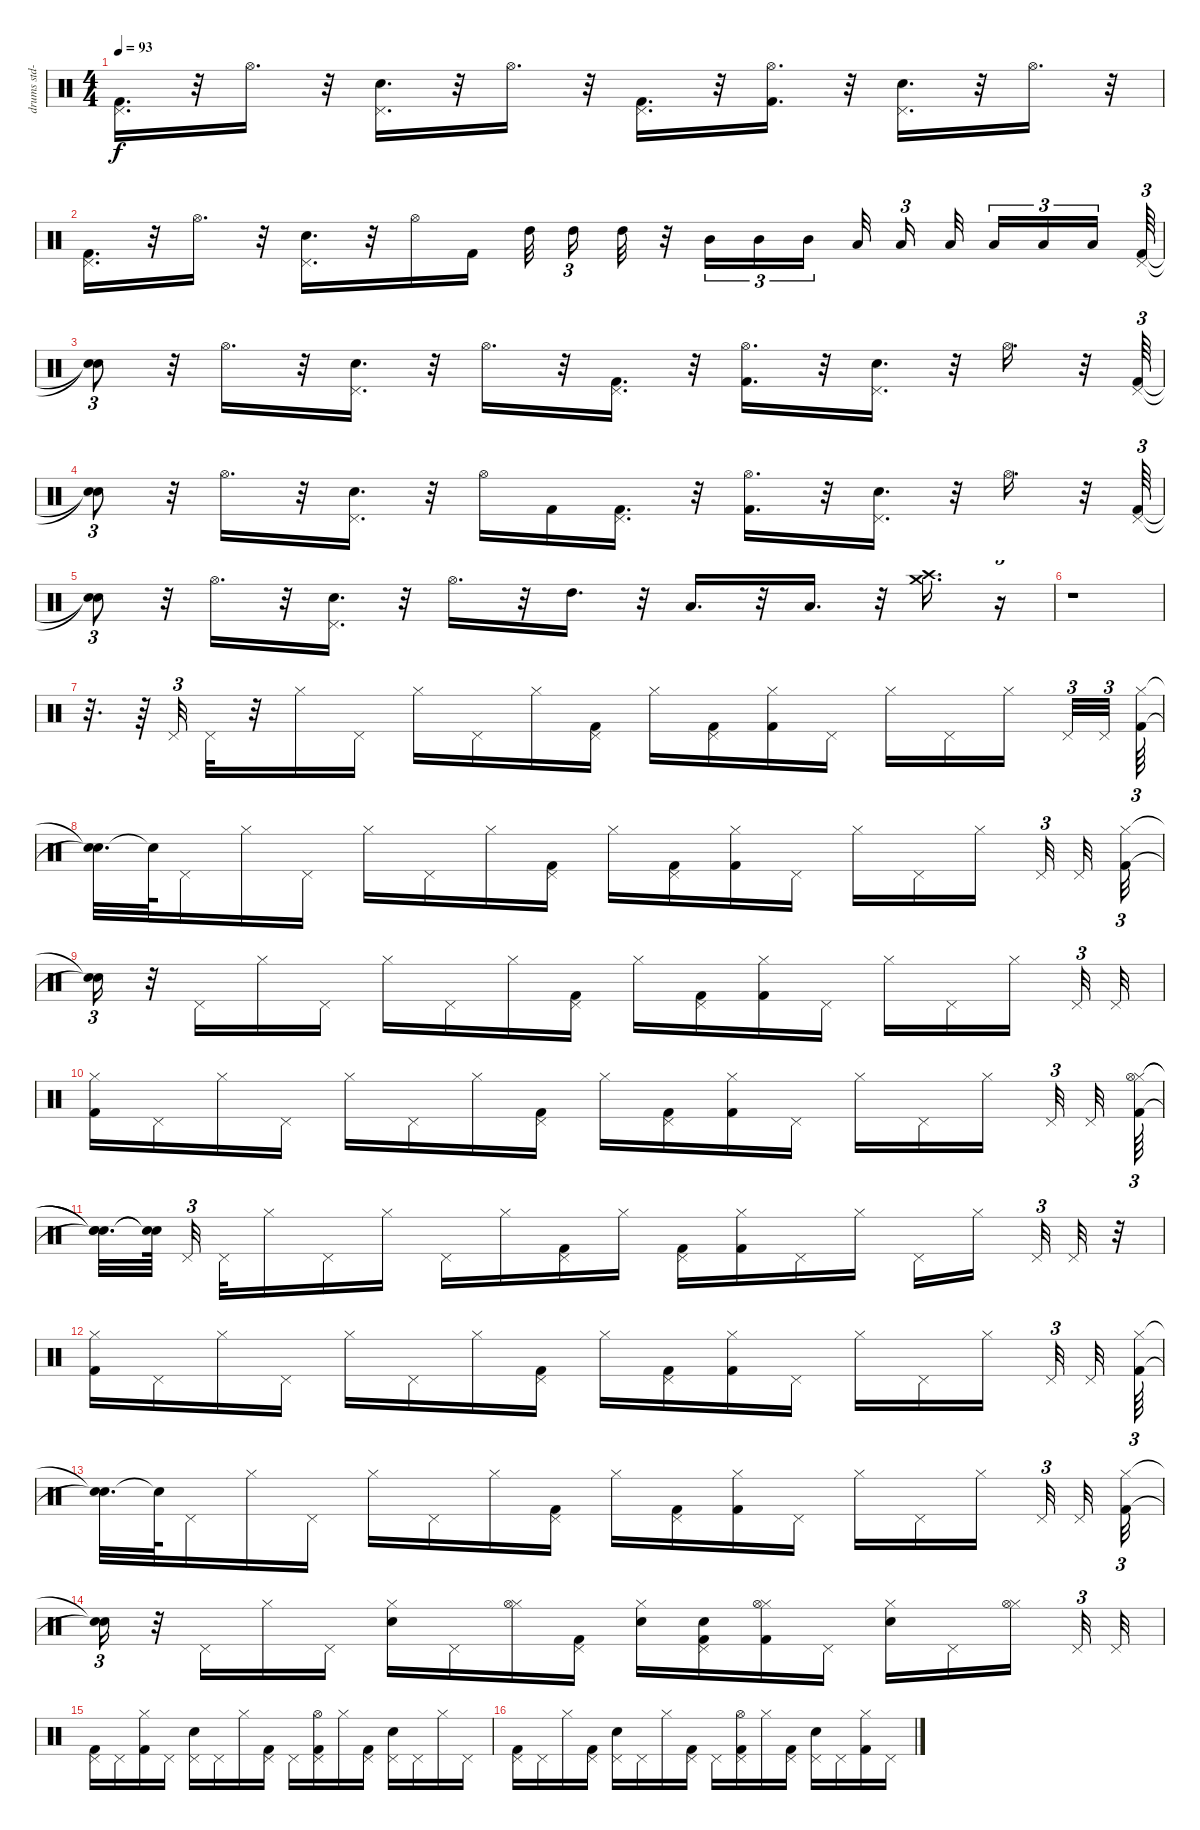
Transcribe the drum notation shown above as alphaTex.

\track ("drums std-0" "drums std-") {instrument percussion}
\staff {score}
\articulation defaults
\ts (4 4)
\tempo 93
\clef neutral
\ks c
("Pedal Hi-Hat (hit)" "Kick (hit) 2").16{d dy f} r.32 "Hi-Hat (open)".16{d} r.32 ("Pedal Hi-Hat (hit)" "Snare (hit) 2").16{d} r.32 "Hi-Hat (open)".16{d} r.32 ("Pedal Hi-Hat (hit)" "Kick (hit) 2").16{d} r.32 ("Hi-Hat (open)" "Kick (hit) 2").16{d} r.32 ("Pedal Hi-Hat (hit)" "Snare (hit) 2").16{d} r.32 "Hi-Hat (open)".16{d} r.32 |
("Pedal Hi-Hat (hit)" "Kick (hit) 2").16{d} r.32 "Hi-Hat (open)".16{d} r.32 ("Pedal Hi-Hat (hit)" "Snare (hit) 2").16{d} r.32 "Hi-Hat (open)".16 "Kick (hit) 2".16 "High Tom (hit)".32 "High Tom (hit)".16{tu (3 2)} "High Tom (hit)".32 r.32 "Mid Tom (hit)".16{tu (3 2)} "Mid Tom (hit)".16{tu (3 2)} "Mid Tom (hit)".16{tu (3 2)} "Low Tom (hit)".32 "Low Tom (hit)".16{tu (3 2)} "Low Tom (hit)".32 "Low Floor Tom (hit)".16{tu (3 2)} "Low Floor Tom (hit)".16{tu (3 2)} "Low Floor Tom (hit)".16{tu (3 2)} ("Pedal Hi-Hat (hit)" "Kick (hit) 2").64{tu (3 2)} |
("Snare (hit)"{t} "Snare (hit)"{t}).8{tu (3 2)} r.32 "Hi-Hat (open)".16{d} r.32 ("Pedal Hi-Hat (hit)" "Snare (hit) 2").16{d} r.32 "Hi-Hat (open)".16{d} r.32 ("Pedal Hi-Hat (hit)" "Kick (hit) 2").16{d} r.32 ("Hi-Hat (open)" "Kick (hit) 2").16{d} r.32 ("Pedal Hi-Hat (hit)" "Snare (hit) 2").16{d} r.32 "Hi-Hat (open)".16{d} r.32 ("Pedal Hi-Hat (hit)" "Kick (hit) 2").64{tu (3 2)} |
("Snare (hit)"{t} "Snare (hit)"{t}).8{tu (3 2)} r.32 "Hi-Hat (open)".16{d} r.32 ("Pedal Hi-Hat (hit)" "Snare (hit) 2").16{d} r.32 "Hi-Hat (open)".16 "Kick (hit) 2".16 ("Pedal Hi-Hat (hit)" "Kick (hit) 2").16{d} r.32 ("Hi-Hat (open)" "Kick (hit) 2").16{d} r.32 ("Pedal Hi-Hat (hit)" "Snare (hit) 2").16{d} r.32 "Hi-Hat (open)".16{d} r.32 ("Pedal Hi-Hat (hit)" "Kick (hit) 2").64{tu (3 2)} |
("Snare (hit)"{t} "Snare (hit)"{t}).8{tu (3 2)} r.32 "Hi-Hat (open)".16{d} r.32 ("Pedal Hi-Hat (hit)" "Snare (hit) 2").16{d} r.32 "Hi-Hat (open)".16{d} r.32 "High Tom (hit)".16{d} r.32 "Low Tom (hit)".16{d} r.32 "Low Floor Tom (hit)".16{d} r.32 ("Crash high (hit)" "Crash medium (hit)").16{d} r.16{tu (3 2)} |
r.1 |
r.32{d} r.64 "Pedal Hi-Hat (hit)".32{tu (3 2)} "Pedal Hi-Hat (hit)".32 r.32 "Hi-Hat (closed)".16 "Pedal Hi-Hat (hit)".16 "Hi-Hat (closed)".16 "Pedal Hi-Hat (hit)".16 "Hi-Hat (closed)".16 ("Pedal Hi-Hat (hit)" "Kick (hit) 2").16 "Hi-Hat (closed)".16 ("Pedal Hi-Hat (hit)" "Kick (hit) 2").16 ("Hi-Hat (closed)" "Kick (hit) 2").16 "Pedal Hi-Hat (hit)".16 "Hi-Hat (closed)".16 "Pedal Hi-Hat (hit)".16 "Hi-Hat (closed)".16 "Pedal Hi-Hat (hit)".32{tu (3 2)} "Pedal Hi-Hat (hit)".32{tu (3 2)} ("Hi-Hat (closed)" "Kick (hit) 2").64{tu (3 2)} |
("Snare (hit)"{t} "Snare (hit)"{t}).32{d} "Snare (hit)"{t}.64 "Pedal Hi-Hat (hit)".16 "Hi-Hat (closed)".16 "Pedal Hi-Hat (hit)".16 "Hi-Hat (closed)".16 "Pedal Hi-Hat (hit)".16 "Hi-Hat (closed)".16 ("Pedal Hi-Hat (hit)" "Kick (hit) 2").16 "Hi-Hat (closed)".16 ("Pedal Hi-Hat (hit)" "Kick (hit) 2").16 ("Hi-Hat (closed)" "Kick (hit) 2").16 "Pedal Hi-Hat (hit)".16 "Hi-Hat (closed)".16 "Pedal Hi-Hat (hit)".16 "Hi-Hat (closed)".16 "Pedal Hi-Hat (hit)".32{tu (3 2)} "Pedal Hi-Hat (hit)".32 ("Hi-Hat (closed)" "Kick (hit) 2").32{tu (3 2)} |
("Snare (hit)"{t} "Snare (hit)"{t}).16{tu (3 2)} r.32 "Pedal Hi-Hat (hit)".16 "Hi-Hat (closed)".16 "Pedal Hi-Hat (hit)".16 "Hi-Hat (closed)".16 "Pedal Hi-Hat (hit)".16 "Hi-Hat (closed)".16 ("Pedal Hi-Hat (hit)" "Kick (hit) 2").16 "Hi-Hat (closed)".16 ("Pedal Hi-Hat (hit)" "Kick (hit) 2").16 ("Hi-Hat (closed)" "Kick (hit) 2").16 "Pedal Hi-Hat (hit)".16 "Hi-Hat (closed)".16 "Pedal Hi-Hat (hit)".16 "Hi-Hat (closed)".16 "Pedal Hi-Hat (hit)".32{tu (3 2)} "Pedal Hi-Hat (hit)".32 |
("Hi-Hat (closed)" "Kick (hit) 2").16 "Pedal Hi-Hat (hit)".16 "Hi-Hat (closed)".16 "Pedal Hi-Hat (hit)".16 "Hi-Hat (closed)".16 "Pedal Hi-Hat (hit)".16 "Hi-Hat (closed)".16 ("Pedal Hi-Hat (hit)" "Kick (hit) 2").16 "Hi-Hat (closed)".16 ("Pedal Hi-Hat (hit)" "Kick (hit) 2").16 ("Hi-Hat (closed)" "Kick (hit) 2").16 "Pedal Hi-Hat (hit)".16 "Hi-Hat (closed)".16 "Pedal Hi-Hat (hit)".16 "Hi-Hat (closed)".16 "Pedal Hi-Hat (hit)".32{tu (3 2)} "Pedal Hi-Hat (hit)".32 ("Hi-Hat (closed)" "Kick (hit) 2" "Hi-Hat (open)").64{tu (3 2)} |
("Snare (hit)"{t} "Snare (hit)"{t} "Snare (hit)"{t}).32{d} ("Snare (hit)"{t} "Snare (hit)"{t}).64 "Pedal Hi-Hat (hit)".32{tu (3 2)} "Pedal Hi-Hat (hit)".32 "Hi-Hat (closed)".16 "Pedal Hi-Hat (hit)".16 "Hi-Hat (closed)".16 "Pedal Hi-Hat (hit)".16 "Hi-Hat (closed)".16 ("Pedal Hi-Hat (hit)" "Kick (hit) 2").16 "Hi-Hat (closed)".16 ("Pedal Hi-Hat (hit)" "Kick (hit) 2").16 ("Hi-Hat (closed)" "Kick (hit) 2").16 "Pedal Hi-Hat (hit)".16 "Hi-Hat (closed)".16 "Pedal Hi-Hat (hit)".16 "Hi-Hat (closed)".16 "Pedal Hi-Hat (hit)".32{tu (3 2)} "Pedal Hi-Hat (hit)".32 r.32 |
("Hi-Hat (closed)" "Kick (hit) 2").16 "Pedal Hi-Hat (hit)".16 "Hi-Hat (closed)".16 "Pedal Hi-Hat (hit)".16 "Hi-Hat (closed)".16 "Pedal Hi-Hat (hit)".16 "Hi-Hat (closed)".16 ("Pedal Hi-Hat (hit)" "Kick (hit) 2").16 "Hi-Hat (closed)".16 ("Pedal Hi-Hat (hit)" "Kick (hit) 2").16 ("Hi-Hat (closed)" "Kick (hit) 2").16 "Pedal Hi-Hat (hit)".16 "Hi-Hat (closed)".16 "Pedal Hi-Hat (hit)".16 "Hi-Hat (closed)".16 "Pedal Hi-Hat (hit)".32{tu (3 2)} "Pedal Hi-Hat (hit)".32 ("Hi-Hat (closed)" "Kick (hit) 2").64{tu (3 2)} |
("Snare (hit)"{t} "Snare (hit)"{t}).32{d} "Snare (hit)"{t}.64 "Pedal Hi-Hat (hit)".16 "Hi-Hat (closed)".16 "Pedal Hi-Hat (hit)".16 "Hi-Hat (closed)".16 "Pedal Hi-Hat (hit)".16 "Hi-Hat (closed)".16 ("Pedal Hi-Hat (hit)" "Kick (hit) 2").16 "Hi-Hat (closed)".16 ("Pedal Hi-Hat (hit)" "Kick (hit) 2").16 ("Hi-Hat (closed)" "Kick (hit) 2").16 "Pedal Hi-Hat (hit)".16 "Hi-Hat (closed)".16 "Pedal Hi-Hat (hit)".16 "Hi-Hat (closed)".16 "Pedal Hi-Hat (hit)".32{tu (3 2)} "Pedal Hi-Hat (hit)".32 ("Hi-Hat (closed)" "Kick (hit) 2").32{tu (3 2)} |
("Snare (hit)"{t} "Snare (hit)"{t}).16{tu (3 2)} r.32 "Pedal Hi-Hat (hit)".16 "Hi-Hat (closed)".16 "Pedal Hi-Hat (hit)".16 ("Hi-Hat (closed)" "Snare (hit) 2").16 "Pedal Hi-Hat (hit)".16 ("Hi-Hat (closed)" "Hi-Hat (open)").16 ("Pedal Hi-Hat (hit)" "Kick (hit) 2").16 ("Snare (hit) 2" "Hi-Hat (closed)").16 ("Snare (hit) 2" "Pedal Hi-Hat (hit)" "Kick (hit) 2").16 ("Hi-Hat (closed)" "Kick (hit) 2" "Hi-Hat (open)").16 "Pedal Hi-Hat (hit)".16 ("Hi-Hat (closed)" "Snare (hit) 2").16 "Pedal Hi-Hat (hit)".16 ("Hi-Hat (closed)" "Hi-Hat (open)").16 "Pedal Hi-Hat (hit)".32{tu (3 2)} "Pedal Hi-Hat (hit)".32 |
("Pedal Hi-Hat (hit)" "Kick (hit) 2").16 "Pedal Hi-Hat (hit)".16 ("Hi-Hat (closed)" "Kick (hit) 2").16 "Pedal Hi-Hat (hit)".16 ("Pedal Hi-Hat (hit)" "Snare (hit) 2").16 "Pedal Hi-Hat (hit)".16 "Hi-Hat (closed)".16 ("Pedal Hi-Hat (hit)" "Kick (hit) 2").16 "Pedal Hi-Hat (hit)".16 ("Pedal Hi-Hat (hit)" "Kick (hit) 2" "Hi-Hat (open)").16 "Hi-Hat (closed)".16 ("Pedal Hi-Hat (hit)" "Kick (hit) 2").16 ("Pedal Hi-Hat (hit)" "Snare (hit) 2").16 "Pedal Hi-Hat (hit)".16 "Hi-Hat (closed)".16 "Pedal Hi-Hat (hit)".16 |
("Pedal Hi-Hat (hit)" "Kick (hit) 2").16 "Pedal Hi-Hat (hit)".16 "Hi-Hat (closed)".16 ("Pedal Hi-Hat (hit)" "Kick (hit) 2").16 ("Pedal Hi-Hat (hit)" "Snare (hit) 2").16 "Pedal Hi-Hat (hit)".16 "Hi-Hat (closed)".16 ("Pedal Hi-Hat (hit)" "Kick (hit) 2").16 "Pedal Hi-Hat (hit)".16 ("Pedal Hi-Hat (hit)" "Kick (hit) 2" "Hi-Hat (open)").16 "Hi-Hat (closed)".16 ("Pedal Hi-Hat (hit)" "Kick (hit) 2").16 ("Pedal Hi-Hat (hit)" "Snare (hit) 2").16 "Pedal Hi-Hat (hit)".16 ("Hi-Hat (closed)" "Kick (hit) 2").16 "Pedal Hi-Hat (hit)".16
